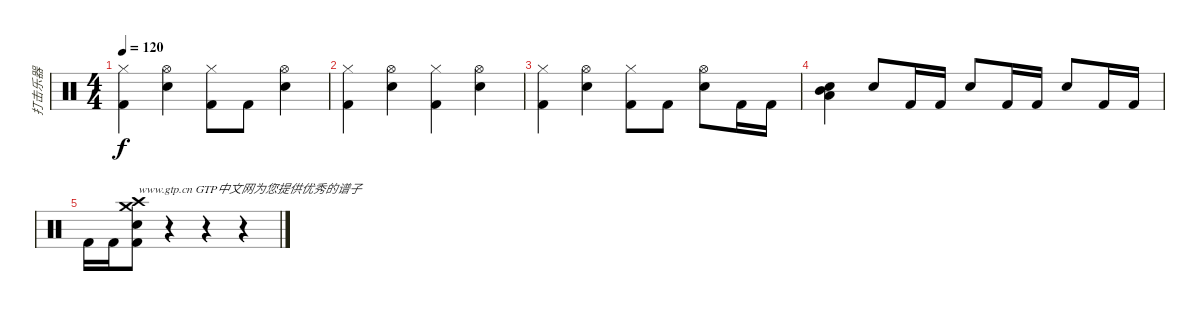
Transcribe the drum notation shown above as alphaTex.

\track ("打击乐器" "打击乐器") {instrument percussion}
\staff {score}
\articulation defaults
\ts (4 4)
\tempo 120
\clef neutral
\ks c
("Kick (hit) 2" "Hi-Hat (closed)").4{dy f} ("Hi-Hat (open)" "Electric Snare (hit)").4 ("Kick (hit) 2" "Hi-Hat (closed)").8 "Kick (hit) 2".8 ("Electric Snare (hit)" "Hi-Hat (open)").4 |
("Kick (hit) 2" "Hi-Hat (closed)").4 ("Hi-Hat (open)" "Electric Snare (hit)").4 ("Kick (hit) 2" "Hi-Hat (closed)").4 ("Electric Snare (hit)" "Hi-Hat (open)").4 |
("Kick (hit) 2" "Hi-Hat (closed)").4 ("Hi-Hat (open)" "Electric Snare (hit)").4 ("Kick (hit) 2" "Hi-Hat (closed)").8 "Kick (hit) 2".8 ("Electric Snare (hit)" "Hi-Hat (open)").8 "Kick (hit) 2".16 "Kick (hit) 2".16 |
("Electric Snare (hit)" "Mid Tom (hit)" "Low Tom (hit)").4 "Electric Snare (hit)".8 "Kick (hit) 2".16 "Kick (hit) 2".16 "Electric Snare (hit)".8 "Kick (hit) 2".16 "Kick (hit) 2".16 "Electric Snare (hit)".8 "Kick (hit) 2".16 "Kick (hit) 2".16 |
"Kick (hit) 2".16 "Kick (hit) 2".16 ("Electric Snare (hit)" "Kick (hit) 2" "Crash high (hit)" "Crash medium (hit)").8{txt "www.gtp.cn GTP中文网为您提供优秀的谱子"} r.4 r.4 r.4
